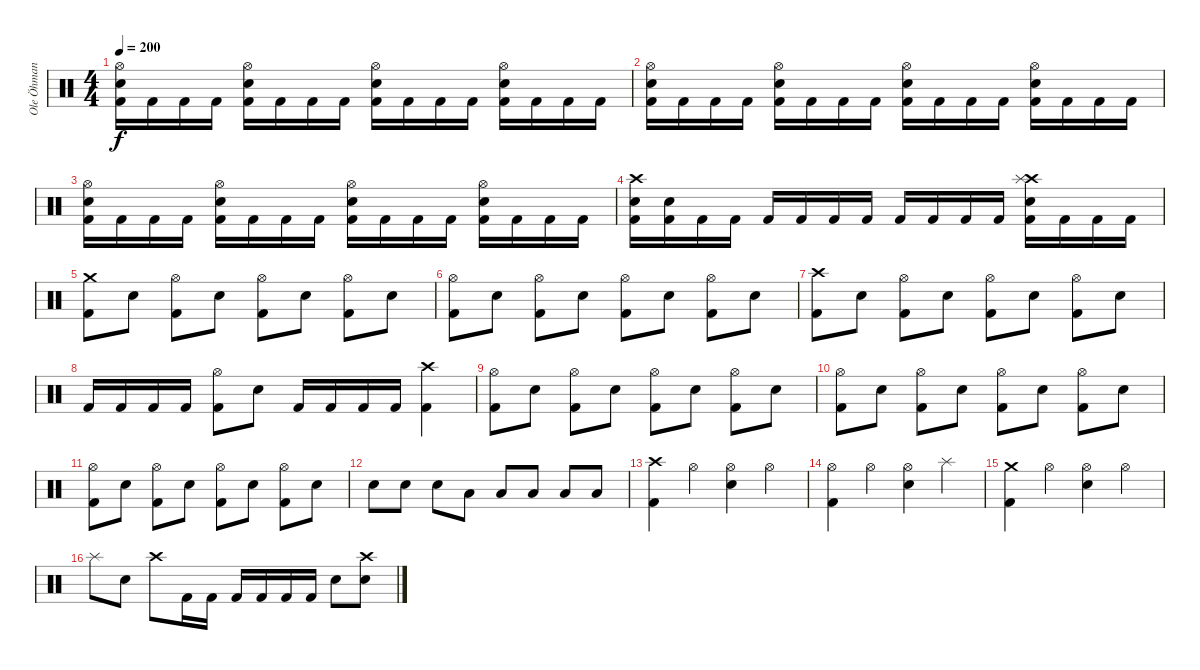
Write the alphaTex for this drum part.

\track ("Ole Öhman" "Ole Öhman") {instrument percussion}
\staff {score}
\articulation defaults
\ts (4 4)
\tempo 200
\clef neutral
\ks c
("Hi-Hat (open)" "Snare (hit) 2" "Kick (hit) 2").16{dy f} "Kick (hit) 2".16 "Kick (hit) 2".16 "Kick (hit) 2".16 ("Hi-Hat (open)" "Snare (hit) 2" "Kick (hit) 2").16 "Kick (hit) 2".16 "Kick (hit) 2".16 "Kick (hit) 2".16 ("Snare (hit) 2" "Hi-Hat (open)" "Kick (hit) 2").16 "Kick (hit) 2".16 "Kick (hit) 2".16 "Kick (hit) 2".16 ("Hi-Hat (open)" "Snare (hit) 2" "Kick (hit) 2").16 "Kick (hit) 2".16 "Kick (hit) 2".16 "Kick (hit) 2".16 |
("Hi-Hat (open)" "Snare (hit) 2" "Kick (hit) 2").16 "Kick (hit) 2".16 "Kick (hit) 2".16 "Kick (hit) 2".16 ("Hi-Hat (open)" "Snare (hit) 2" "Kick (hit) 2").16 "Kick (hit) 2".16 "Kick (hit) 2".16 "Kick (hit) 2".16 ("Snare (hit) 2" "Hi-Hat (open)" "Kick (hit) 2").16 "Kick (hit) 2".16 "Kick (hit) 2".16 "Kick (hit) 2".16 ("Hi-Hat (open)" "Snare (hit) 2" "Kick (hit) 2").16 "Kick (hit) 2".16 "Kick (hit) 2".16 "Kick (hit) 2".16 |
("Hi-Hat (open)" "Snare (hit) 2" "Kick (hit) 2").16 "Kick (hit) 2".16 "Kick (hit) 2".16 "Kick (hit) 2".16 ("Hi-Hat (open)" "Snare (hit) 2" "Kick (hit) 2").16 "Kick (hit) 2".16 "Kick (hit) 2".16 "Kick (hit) 2".16 ("Snare (hit) 2" "Hi-Hat (open)" "Kick (hit) 2").16 "Kick (hit) 2".16 "Kick (hit) 2".16 "Kick (hit) 2".16 ("Hi-Hat (open)" "Snare (hit) 2" "Kick (hit) 2").16 "Kick (hit) 2".16 "Kick (hit) 2".16 "Kick (hit) 2".16 |
("Crash high (hit)" "Snare (hit) 2" "Kick (hit) 2").16 ("Snare (hit) 2" "Kick (hit) 2").16 "Kick (hit) 2".16 "Kick (hit) 2".16 "Kick (hit) 2".16 "Kick (hit) 2".16 "Kick (hit) 2".16 "Kick (hit) 2".16 "Kick (hit) 2".16 "Kick (hit) 2".16 "Kick (hit) 2".16 "Kick (hit) 2".16 ("Crash high (hit)" "Splash (hit)" "Snare (hit) 2" "Kick (hit) 2").16 "Kick (hit) 2".16 "Kick (hit) 2".16 "Kick (hit) 2".16 |
("Crash medium (hit)" "Kick (hit) 2").8 "Snare (hit) 2".8 ("Hi-Hat (open)" "Kick (hit) 2").8 "Snare (hit) 2".8 ("Hi-Hat (open)" "Kick (hit) 2").8 "Snare (hit) 2".8 ("Hi-Hat (open)" "Kick (hit) 2").8 "Snare (hit) 2".8 |
("Hi-Hat (open)" "Kick (hit) 2").8 "Snare (hit) 2".8 ("Hi-Hat (open)" "Kick (hit) 2").8 "Snare (hit) 2".8 ("Hi-Hat (open)" "Kick (hit) 2").8 "Snare (hit) 2".8 ("Hi-Hat (open)" "Kick (hit) 2").8 "Snare (hit) 2".8 |
("Crash high (hit)" "Kick (hit) 2").8 "Snare (hit) 2".8 ("Hi-Hat (open)" "Kick (hit) 2").8 "Snare (hit) 2".8 ("Hi-Hat (open)" "Kick (hit) 2").8 "Snare (hit) 2".8 ("Hi-Hat (open)" "Kick (hit) 2").8 "Snare (hit) 2".8 |
"Kick (hit) 2".16 "Kick (hit) 2".16 "Kick (hit) 2".16 "Kick (hit) 2".16 ("Hi-Hat (open)" "Kick (hit) 2").8 "Snare (hit) 2".8 "Kick (hit) 2".16 "Kick (hit) 2".16 "Kick (hit) 2".16 "Kick (hit) 2".16 ("Crash high (hit)" "Kick (hit) 2").4 |
("Hi-Hat (open)" "Kick (hit) 2").8 "Snare (hit) 2".8 ("Hi-Hat (open)" "Kick (hit) 2").8 "Snare (hit) 2".8 ("Hi-Hat (open)" "Kick (hit) 2").8 "Snare (hit) 2".8 ("Hi-Hat (open)" "Kick (hit) 2").8 "Snare (hit) 2".8 |
("Hi-Hat (open)" "Kick (hit) 2").8 "Snare (hit) 2".8 ("Hi-Hat (open)" "Kick (hit) 2").8 "Snare (hit) 2".8 ("Hi-Hat (open)" "Kick (hit) 2").8 "Snare (hit) 2".8 ("Hi-Hat (open)" "Kick (hit) 2").8 "Snare (hit) 2".8 |
("Hi-Hat (open)" "Kick (hit) 2").8 "Snare (hit) 2".8 ("Hi-Hat (open)" "Kick (hit) 2").8 "Snare (hit) 2".8 ("Hi-Hat (open)" "Kick (hit) 2").8 "Snare (hit) 2".8 ("Hi-Hat (open)" "Kick (hit) 2").8 "Snare (hit) 2".8 |
"Snare (hit) 2".8 "Snare (hit) 2".8 "Snare (hit) 2".8 "Low Tom (hit)".8 "Low Tom (hit)".8 "Low Tom (hit)".8 "Low Floor Tom (hit)".8 "Low Floor Tom (hit)".8 |
("Crash high (hit)" "Kick (hit) 2").4 "Hi-Hat (open)".4 ("Hi-Hat (open)" "Snare (hit) 2").4 "Hi-Hat (open)".4 |
("Hi-Hat (open)" "Kick (hit) 2").4 "Hi-Hat (open)".4 ("Snare (hit) 2" "Hi-Hat (open)").4 "Splash (hit)".4 |
("Crash medium (hit)" "Kick (hit) 2").4 "Hi-Hat (open)".4 ("Hi-Hat (open)" "Snare (hit) 2").4 "Hi-Hat (open)".4 |
"Splash (hit)".8 "Snare (hit) 2".8 "Crash high (hit)".8 "Kick (hit) 2".16 "Kick (hit) 2".16 "Kick (hit) 2".16 "Kick (hit) 2".16 "Kick (hit) 2".16 "Kick (hit) 2".16 "Snare (hit) 2".8 ("Crash high (hit)" "Snare (hit) 2").8
